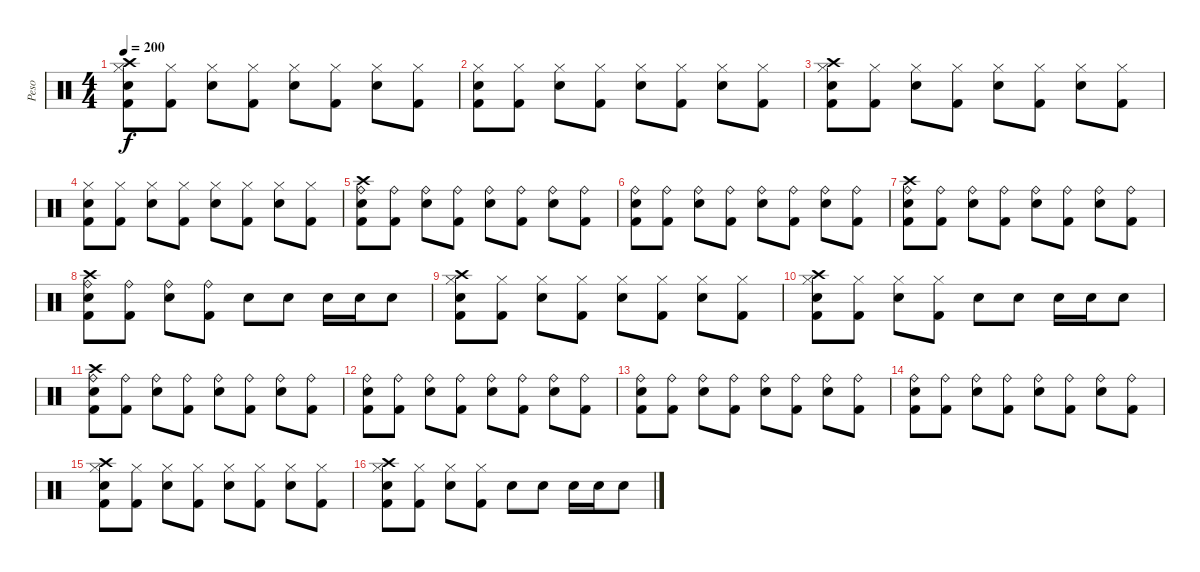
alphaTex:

\track ("Peso" "Peso") {instrument percussion}
\staff {score}
\articulation defaults
\ts (4 4)
\tempo 200
\clef neutral
\ks c
("Crash high (hit)" "Hi-Hat (closed)" "Snare (hit) 2" "Kick (hit) 2").8{dy f} ("Hi-Hat (closed)" "Kick (hit) 2").8 ("Hi-Hat (closed)" "Snare (hit) 2").8 ("Hi-Hat (closed)" "Kick (hit) 2").8 ("Hi-Hat (closed)" "Snare (hit) 2").8 ("Hi-Hat (closed)" "Kick (hit) 2").8 ("Hi-Hat (closed)" "Snare (hit) 2").8 ("Hi-Hat (closed)" "Kick (hit) 2").8 |
("Hi-Hat (closed)" "Snare (hit) 2" "Kick (hit) 2").8 ("Hi-Hat (closed)" "Kick (hit) 2").8 ("Hi-Hat (closed)" "Snare (hit) 2").8 ("Hi-Hat (closed)" "Kick (hit) 2").8 ("Hi-Hat (closed)" "Snare (hit) 2").8 ("Hi-Hat (closed)" "Kick (hit) 2").8 ("Hi-Hat (closed)" "Snare (hit) 2").8 ("Hi-Hat (closed)" "Kick (hit) 2").8 |
("Crash high (hit)" "Hi-Hat (closed)" "Snare (hit) 2" "Kick (hit) 2").8 ("Hi-Hat (closed)" "Kick (hit) 2").8 ("Hi-Hat (closed)" "Snare (hit) 2").8 ("Hi-Hat (closed)" "Kick (hit) 2").8 ("Hi-Hat (closed)" "Snare (hit) 2").8 ("Hi-Hat (closed)" "Kick (hit) 2").8 ("Hi-Hat (closed)" "Snare (hit) 2").8 ("Hi-Hat (closed)" "Kick (hit) 2").8 |
("Hi-Hat (closed)" "Snare (hit) 2" "Kick (hit) 2").8 ("Hi-Hat (closed)" "Kick (hit) 2").8 ("Hi-Hat (closed)" "Snare (hit) 2").8 ("Hi-Hat (closed)" "Kick (hit) 2").8 ("Hi-Hat (closed)" "Snare (hit) 2").8 ("Hi-Hat (closed)" "Kick (hit) 2").8 ("Hi-Hat (closed)" "Snare (hit) 2").8 ("Hi-Hat (closed)" "Kick (hit) 2").8 |
("Crash high (hit)" "Ride (bell)" "Snare (hit) 2" "Kick (hit) 2").8 ("Ride (bell)" "Kick (hit) 2").8 ("Ride (bell)" "Snare (hit) 2").8 ("Ride (bell)" "Kick (hit) 2").8 ("Ride (bell)" "Snare (hit) 2").8 ("Ride (bell)" "Kick (hit) 2").8 ("Ride (bell)" "Snare (hit) 2").8 ("Ride (bell)" "Kick (hit) 2").8 |
("Ride (bell)" "Snare (hit) 2" "Kick (hit) 2").8 ("Ride (bell)" "Kick (hit) 2").8 ("Ride (bell)" "Snare (hit) 2").8 ("Ride (bell)" "Kick (hit) 2").8 ("Ride (bell)" "Snare (hit) 2").8 ("Ride (bell)" "Kick (hit) 2").8 ("Ride (bell)" "Snare (hit) 2").8 ("Ride (bell)" "Kick (hit) 2").8 |
("Crash high (hit)" "Ride (bell)" "Snare (hit) 2" "Kick (hit) 2").8 ("Ride (bell)" "Kick (hit) 2").8 ("Ride (bell)" "Snare (hit) 2").8 ("Ride (bell)" "Kick (hit) 2").8 ("Ride (bell)" "Snare (hit) 2").8 ("Ride (bell)" "Kick (hit) 2").8 ("Ride (bell)" "Snare (hit) 2").8 ("Ride (bell)" "Kick (hit) 2").8 |
("Crash high (hit)" "Ride (bell)" "Snare (hit) 2" "Kick (hit) 2").8 ("Ride (bell)" "Kick (hit) 2").8 ("Ride (bell)" "Snare (hit) 2").8 ("Ride (bell)" "Kick (hit) 2").8 "Snare (hit) 2".8 "Snare (hit) 2".8 "Snare (hit) 2".16 "Snare (hit) 2".16 "Snare (hit) 2".8 |
("Crash high (hit)" "Hi-Hat (closed)" "Snare (hit) 2" "Kick (hit) 2").8 ("Hi-Hat (closed)" "Kick (hit) 2").8 ("Hi-Hat (closed)" "Snare (hit) 2").8 ("Hi-Hat (closed)" "Kick (hit) 2").8 ("Hi-Hat (closed)" "Snare (hit) 2").8 ("Hi-Hat (closed)" "Kick (hit) 2").8 ("Hi-Hat (closed)" "Snare (hit) 2").8 ("Hi-Hat (closed)" "Kick (hit) 2").8 |
("Crash high (hit)" "Hi-Hat (closed)" "Snare (hit) 2" "Kick (hit) 2").8 ("Hi-Hat (closed)" "Kick (hit) 2").8 ("Hi-Hat (closed)" "Snare (hit) 2").8 ("Hi-Hat (closed)" "Kick (hit) 2").8 "Snare (hit) 2".8 "Snare (hit) 2".8 "Snare (hit) 2".16 "Snare (hit) 2".16 "Snare (hit) 2".8 |
("Crash high (hit)" "Ride (bell)" "Snare (hit) 2" "Kick (hit) 2").8 ("Ride (bell)" "Kick (hit) 2").8 ("Ride (bell)" "Snare (hit) 2").8 ("Ride (bell)" "Kick (hit) 2").8 ("Ride (bell)" "Snare (hit) 2").8 ("Ride (bell)" "Kick (hit) 2").8 ("Ride (bell)" "Snare (hit) 2").8 ("Ride (bell)" "Kick (hit) 2").8 |
("Ride (bell)" "Snare (hit) 2" "Kick (hit) 2").8 ("Ride (bell)" "Kick (hit) 2").8 ("Ride (bell)" "Snare (hit) 2").8 ("Ride (bell)" "Kick (hit) 2").8 ("Ride (bell)" "Snare (hit) 2").8 ("Ride (bell)" "Kick (hit) 2").8 ("Ride (bell)" "Snare (hit) 2").8 ("Ride (bell)" "Kick (hit) 2").8 |
("Ride (bell)" "Snare (hit) 2" "Kick (hit) 2").8 ("Ride (bell)" "Kick (hit) 2").8 ("Ride (bell)" "Snare (hit) 2").8 ("Ride (bell)" "Kick (hit) 2").8 ("Ride (bell)" "Snare (hit) 2").8 ("Ride (bell)" "Kick (hit) 2").8 ("Ride (bell)" "Snare (hit) 2").8 ("Ride (bell)" "Kick (hit) 2").8 |
("Ride (bell)" "Snare (hit) 2" "Kick (hit) 2").8 ("Ride (bell)" "Kick (hit) 2").8 ("Ride (bell)" "Snare (hit) 2").8 ("Ride (bell)" "Kick (hit) 2").8 ("Ride (bell)" "Snare (hit) 2").8 ("Ride (bell)" "Kick (hit) 2").8 ("Ride (bell)" "Snare (hit) 2").8 ("Ride (bell)" "Kick (hit) 2").8 |
("Crash high (hit)" "Hi-Hat (closed)" "Snare (hit) 2" "Kick (hit) 2").8 ("Hi-Hat (closed)" "Kick (hit) 2").8 ("Hi-Hat (closed)" "Snare (hit) 2").8 ("Hi-Hat (closed)" "Kick (hit) 2").8 ("Hi-Hat (closed)" "Snare (hit) 2").8 ("Hi-Hat (closed)" "Kick (hit) 2").8 ("Hi-Hat (closed)" "Snare (hit) 2").8 ("Hi-Hat (closed)" "Kick (hit) 2").8 |
("Crash high (hit)" "Hi-Hat (closed)" "Snare (hit) 2" "Kick (hit) 2").8 ("Hi-Hat (closed)" "Kick (hit) 2").8 ("Hi-Hat (closed)" "Snare (hit) 2").8 ("Hi-Hat (closed)" "Kick (hit) 2").8 "Snare (hit) 2".8 "Snare (hit) 2".8 "Snare (hit) 2".16 "Snare (hit) 2".16 "Snare (hit) 2".8
